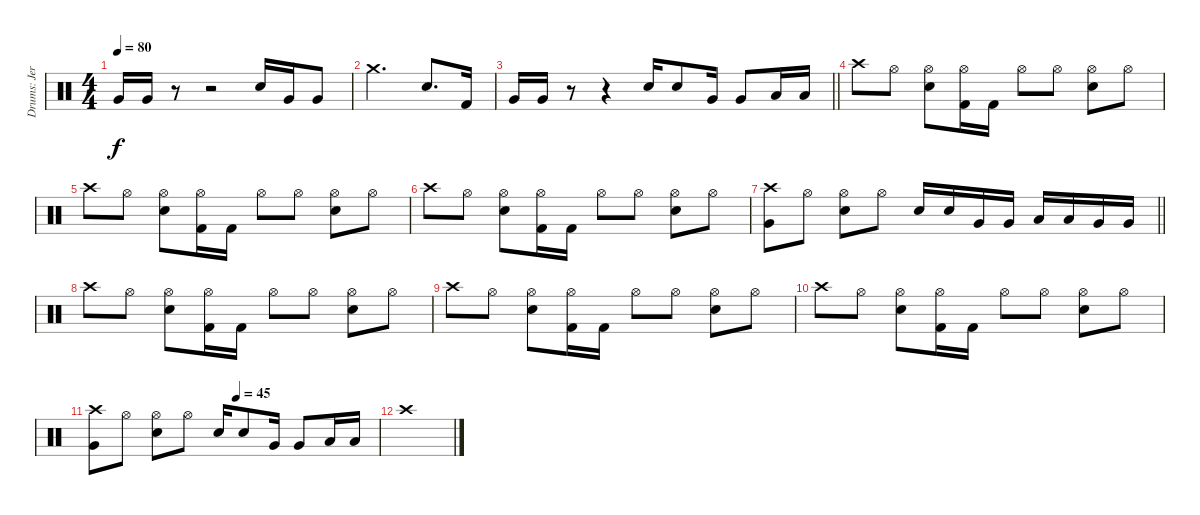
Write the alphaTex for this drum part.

\track ("Drums: Jere Luokkamäki" "Drums: Jer") {instrument percussion}
\staff {score}
\articulation defaults
\ts (4 4)
\tempo 80
\clef neutral
\ks aminor "Very Low Tom (hit)".16{dy f} "Very Low Tom (hit)".16
r.8 r.2 "Electric Snare (hit)".16 "Very Low Tom (hit)".16 "Very Low Tom (hit)".8 |
"Crash medium (hit)".2{d} "Electric Snare (hit)".8{d} "Kick (hit) 2".16 |
\barLineRight lightlight "Very Low Tom (hit)".16 "Very Low Tom (hit)".16
r.8 r.4 "Electric Snare (hit)".16 "Electric Snare (hit)".8 "Very Low Tom (hit)".16 "Very Low Tom (hit)".8 "Low Tom (hit)".16 "Low Tom (hit)".16 |
"Crash high (hit)".8 "Hi-Hat (open)".8 ("Hi-Hat (open)" "Electric Snare (hit)").8 ("Hi-Hat (open)" "Kick (hit) 2").16 "Kick (hit) 2".16 "Hi-Hat (open)".8 "Hi-Hat (open)".8 ("Hi-Hat (open)" "Electric Snare (hit)").8 "Hi-Hat (open)".8 |
"Crash high (hit)".8 "Hi-Hat (open)".8 ("Hi-Hat (open)" "Electric Snare (hit)").8 ("Hi-Hat (open)" "Kick (hit) 2").16 "Kick (hit) 2".16 "Hi-Hat (open)".8 "Hi-Hat (open)".8 ("Hi-Hat (open)" "Electric Snare (hit)").8 "Hi-Hat (open)".8 |
"Crash high (hit)".8 "Hi-Hat (open)".8 ("Hi-Hat (open)" "Electric Snare (hit)").8 ("Hi-Hat (open)" "Kick (hit) 2").16 "Kick (hit) 2".16 "Hi-Hat (open)".8 "Hi-Hat (open)".8 ("Hi-Hat (open)" "Electric Snare (hit)").8 "Hi-Hat (open)".8 |
\barLineRight lightlight
("Crash high (hit)" "Very Low Tom (hit)").8 "Hi-Hat (open)".8 ("Hi-Hat (open)" "Electric Snare (hit)").8 "Hi-Hat (open)".8 "Electric Snare (hit)".16 "Electric Snare (hit)".16 "Very Low Tom (hit)".16 "Very Low Tom (hit)".16 "Low Tom (hit)".16 "Low Tom (hit)".16 "Very Low Tom (hit)".16 "Very Low Tom (hit)".16 |
"Crash high (hit)".8 "Hi-Hat (open)".8 ("Hi-Hat (open)" "Electric Snare (hit)").8 ("Hi-Hat (open)" "Kick (hit) 2").16 "Kick (hit) 2".16 "Hi-Hat (open)".8 "Hi-Hat (open)".8 ("Hi-Hat (open)" "Electric Snare (hit)").8 "Hi-Hat (open)".8 |
"Crash high (hit)".8 "Hi-Hat (open)".8 ("Hi-Hat (open)" "Electric Snare (hit)").8 ("Hi-Hat (open)" "Kick (hit) 2").16 "Kick (hit) 2".16 "Hi-Hat (open)".8 "Hi-Hat (open)".8 ("Hi-Hat (open)" "Electric Snare (hit)").8 "Hi-Hat (open)".8 |
"Crash high (hit)".8 "Hi-Hat (open)".8 ("Hi-Hat (open)" "Electric Snare (hit)").8 ("Hi-Hat (open)" "Kick (hit) 2").16 "Kick (hit) 2".16 "Hi-Hat (open)".8 "Hi-Hat (open)".8 ("Hi-Hat (open)" "Electric Snare (hit)").8 "Hi-Hat (open)".8 |
\tempo (45 0.5)
("Crash high (hit)" "Very Low Tom (hit)").8 "Hi-Hat (open)".8 ("Hi-Hat (open)" "Electric Snare (hit)").8 "Hi-Hat (open)".8 "Electric Snare (hit)".16 "Electric Snare (hit)".8 "Very Low Tom (hit)".16 "Very Low Tom (hit)".8 "Low Tom (hit)".16 "Low Tom (hit)".16 |
"Crash high (hit)".1
